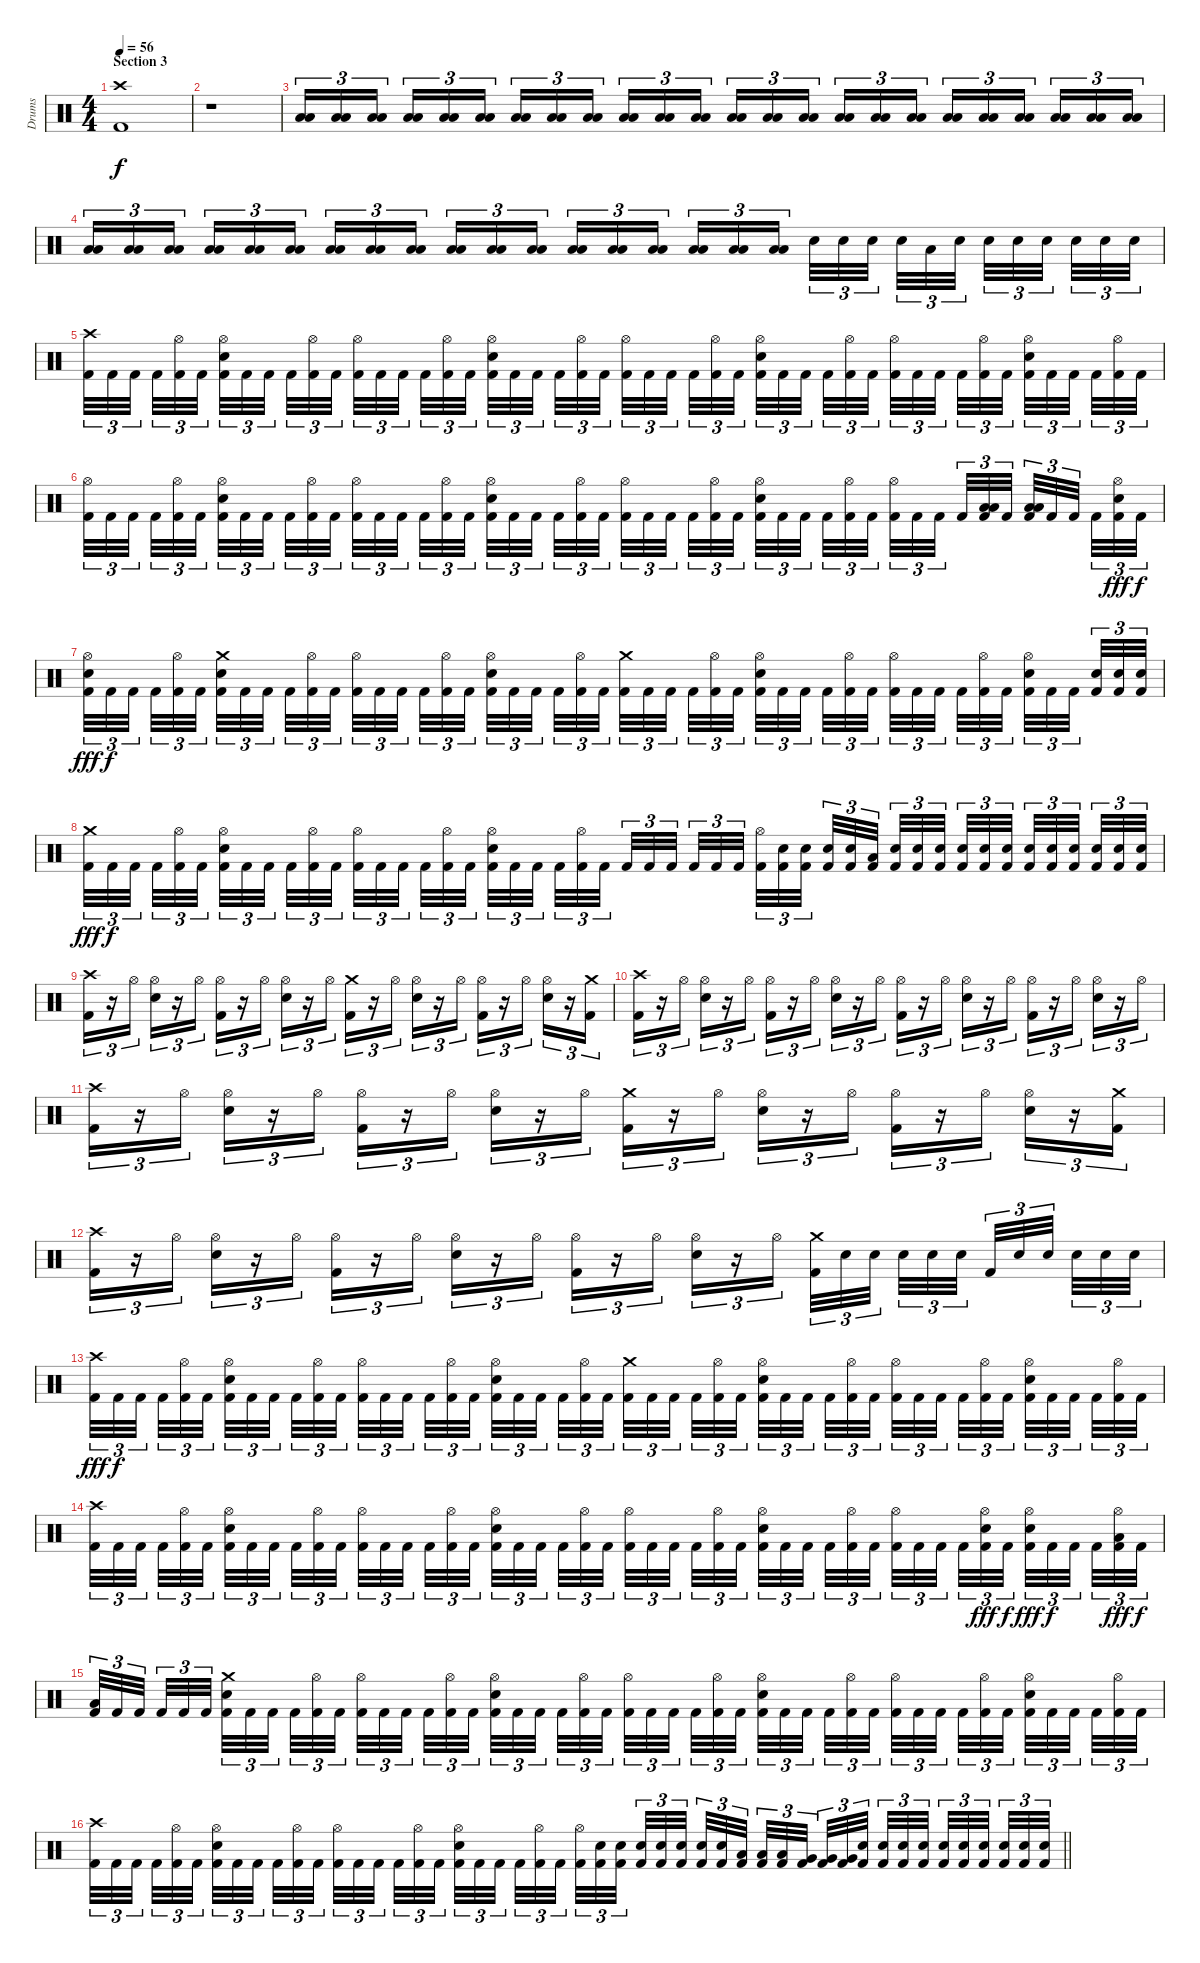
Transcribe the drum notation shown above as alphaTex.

\track ("Drums" "Drums") {instrument percussion}
\staff {score}
\articulation defaults
\ts (4 4)
\section ("" "Section 3")
\tempo 56
\clef neutral
\ks c
("Crash high (hit)" "Kick (hit) 2").1{dy f} |
r.1{volume 4} |
("Low Tom (hit)" "Low Floor Tom (hit)").16{tu (3 2) volume 12} ("Low Tom (hit)" "Low Floor Tom (hit)").16{tu (3 2)} ("Low Tom (hit)" "Low Floor Tom (hit)").16{tu (3 2) beam splitsecondary} ("Low Tom (hit)" "Low Floor Tom (hit)").16{tu (3 2)} ("Low Tom (hit)" "Low Floor Tom (hit)").16{tu (3 2)} ("Low Tom (hit)" "Low Floor Tom (hit)").16{tu (3 2)} ("Low Tom (hit)" "Low Floor Tom (hit)").16{tu (3 2)} ("Low Tom (hit)" "Low Floor Tom (hit)").16{tu (3 2)} ("Low Tom (hit)" "Low Floor Tom (hit)").16{tu (3 2) beam splitsecondary} ("Low Tom (hit)" "Low Floor Tom (hit)").16{tu (3 2)} ("Low Tom (hit)" "Low Floor Tom (hit)").16{tu (3 2)} ("Low Tom (hit)" "Low Floor Tom (hit)").16{tu (3 2)} ("Low Tom (hit)" "Low Floor Tom (hit)").16{tu (3 2)} ("Low Tom (hit)" "Low Floor Tom (hit)").16{tu (3 2)} ("Low Tom (hit)" "Low Floor Tom (hit)").16{tu (3 2) beam splitsecondary} ("Low Tom (hit)" "Low Floor Tom (hit)").16{tu (3 2)} ("Low Tom (hit)" "Low Floor Tom (hit)").16{tu (3 2)} ("Low Tom (hit)" "Low Floor Tom (hit)").16{tu (3 2)} ("Low Tom (hit)" "Low Floor Tom (hit)").16{tu (3 2)} ("Low Tom (hit)" "Low Floor Tom (hit)").16{tu (3 2)} ("Low Tom (hit)" "Low Floor Tom (hit)").16{tu (3 2) beam splitsecondary} ("Low Tom (hit)" "Low Floor Tom (hit)").16{tu (3 2)} ("Low Tom (hit)" "Low Floor Tom (hit)").16{tu (3 2)} ("Low Tom (hit)" "Low Floor Tom (hit)").16{tu (3 2)} |
("Low Tom (hit)" "Low Floor Tom (hit)").16{tu (3 2)} ("Low Tom (hit)" "Low Floor Tom (hit)").16{tu (3 2)} ("Low Tom (hit)" "Low Floor Tom (hit)").16{tu (3 2) beam splitsecondary} ("Low Tom (hit)" "Low Floor Tom (hit)").16{tu (3 2)} ("Low Tom (hit)" "Low Floor Tom (hit)").16{tu (3 2)} ("Low Tom (hit)" "Low Floor Tom (hit)").16{tu (3 2)} ("Low Tom (hit)" "Low Floor Tom (hit)").16{tu (3 2)} ("Low Tom (hit)" "Low Floor Tom (hit)").16{tu (3 2)} ("Low Tom (hit)" "Low Floor Tom (hit)").16{tu (3 2) beam splitsecondary} ("Low Tom (hit)" "Low Floor Tom (hit)").16{tu (3 2)} ("Low Tom (hit)" "Low Floor Tom (hit)").16{tu (3 2)} ("Low Tom (hit)" "Low Floor Tom (hit)").16{tu (3 2)} ("Low Tom (hit)" "Low Floor Tom (hit)").16{tu (3 2)} ("Low Tom (hit)" "Low Floor Tom (hit)").16{tu (3 2)} ("Low Tom (hit)" "Low Floor Tom (hit)").16{tu (3 2) beam splitsecondary} ("Low Tom (hit)" "Low Floor Tom (hit)").16{tu (3 2)} ("Low Tom (hit)" "Low Floor Tom (hit)").16{tu (3 2)} ("Low Tom (hit)" "Low Floor Tom (hit)").16{tu (3 2)} "Electric Snare (hit)".32{tu (3 2)} "Electric Snare (hit)".32{tu (3 2)} "Electric Snare (hit)".32{tu (3 2) beam splitsecondary} "Electric Snare (hit)".32{tu (3 2)} "Low Floor Tom (hit)".32{tu (3 2)} "Electric Snare (hit)".32{tu (3 2) beam splitsecondary} "Electric Snare (hit)".32{tu (3 2)} "Electric Snare (hit)".32{tu (3 2)} "Electric Snare (hit)".32{tu (3 2) beam splitsecondary} "Electric Snare (hit)".32{tu (3 2)} "Electric Snare (hit)".32{tu (3 2)} "Electric Snare (hit)".32{tu (3 2)} |
("Crash high (hit)" "Kick (hit) 2").32{tu (3 2)} "Kick (hit) 2".32{tu (3 2)} "Kick (hit) 2".32{tu (3 2) beam splitsecondary} "Kick (hit) 2".32{tu (3 2)} ("Hi-Hat (open)" "Kick (hit) 2").32{tu (3 2)} "Kick (hit) 2".32{tu (3 2) beam splitsecondary} ("Hi-Hat (open)" "Electric Snare (hit)" "Kick (hit) 2").32{tu (3 2)} "Kick (hit) 2".32{tu (3 2)} "Kick (hit) 2".32{tu (3 2) beam splitsecondary} "Kick (hit) 2".32{tu (3 2)} ("Hi-Hat (open)" "Kick (hit) 2").32{tu (3 2)} "Kick (hit) 2".32{tu (3 2)} ("Hi-Hat (open)" "Kick (hit) 2").32{tu (3 2)} "Kick (hit) 2".32{tu (3 2)} "Kick (hit) 2".32{tu (3 2) beam splitsecondary} "Kick (hit) 2".32{tu (3 2)} ("Hi-Hat (open)" "Kick (hit) 2").32{tu (3 2)} "Kick (hit) 2".32{tu (3 2) beam splitsecondary} ("Hi-Hat (open)" "Electric Snare (hit)" "Kick (hit) 2").32{tu (3 2)} "Kick (hit) 2".32{tu (3 2)} "Kick (hit) 2".32{tu (3 2) beam splitsecondary} "Kick (hit) 2".32{tu (3 2)} ("Hi-Hat (open)" "Kick (hit) 2").32{tu (3 2)} "Kick (hit) 2".32{tu (3 2)} ("Hi-Hat (open)" "Kick (hit) 2").32{tu (3 2)} "Kick (hit) 2".32{tu (3 2)} "Kick (hit) 2".32{tu (3 2) beam splitsecondary} "Kick (hit) 2".32{tu (3 2)} ("Hi-Hat (open)" "Kick (hit) 2").32{tu (3 2)} "Kick (hit) 2".32{tu (3 2) beam splitsecondary} ("Hi-Hat (open)" "Electric Snare (hit)" "Kick (hit) 2").32{tu (3 2)} "Kick (hit) 2".32{tu (3 2)} "Kick (hit) 2".32{tu (3 2) beam splitsecondary} "Kick (hit) 2".32{tu (3 2)} ("Hi-Hat (open)" "Kick (hit) 2").32{tu (3 2)} "Kick (hit) 2".32{tu (3 2)} ("Hi-Hat (open)" "Kick (hit) 2").32{tu (3 2)} "Kick (hit) 2".32{tu (3 2)} "Kick (hit) 2".32{tu (3 2) beam splitsecondary} "Kick (hit) 2".32{tu (3 2)} ("Hi-Hat (open)" "Kick (hit) 2").32{tu (3 2)} "Kick (hit) 2".32{tu (3 2) beam splitsecondary} ("Hi-Hat (open)" "Electric Snare (hit)" "Kick (hit) 2").32{tu (3 2)} "Kick (hit) 2".32{tu (3 2)} "Kick (hit) 2".32{tu (3 2) beam splitsecondary} "Kick (hit) 2".32{tu (3 2)} ("Hi-Hat (open)" "Kick (hit) 2").32{tu (3 2)} "Kick (hit) 2".32{tu (3 2)} |
("Hi-Hat (open)" "Kick (hit) 2").32{tu (3 2)} "Kick (hit) 2".32{tu (3 2)} "Kick (hit) 2".32{tu (3 2) beam splitsecondary} "Kick (hit) 2".32{tu (3 2)} ("Hi-Hat (open)" "Kick (hit) 2").32{tu (3 2)} "Kick (hit) 2".32{tu (3 2) beam splitsecondary} ("Hi-Hat (open)" "Electric Snare (hit)" "Kick (hit) 2").32{tu (3 2)} "Kick (hit) 2".32{tu (3 2)} "Kick (hit) 2".32{tu (3 2) beam splitsecondary} "Kick (hit) 2".32{tu (3 2)} ("Hi-Hat (open)" "Kick (hit) 2").32{tu (3 2)} "Kick (hit) 2".32{tu (3 2)} ("Hi-Hat (open)" "Kick (hit) 2").32{tu (3 2)} "Kick (hit) 2".32{tu (3 2)} "Kick (hit) 2".32{tu (3 2) beam splitsecondary} "Kick (hit) 2".32{tu (3 2)} ("Hi-Hat (open)" "Kick (hit) 2").32{tu (3 2)} "Kick (hit) 2".32{tu (3 2) beam splitsecondary} ("Hi-Hat (open)" "Electric Snare (hit)" "Kick (hit) 2").32{tu (3 2)} "Kick (hit) 2".32{tu (3 2)} "Kick (hit) 2".32{tu (3 2) beam splitsecondary} "Kick (hit) 2".32{tu (3 2)} ("Hi-Hat (open)" "Kick (hit) 2").32{tu (3 2)} "Kick (hit) 2".32{tu (3 2)} ("Hi-Hat (open)" "Kick (hit) 2").32{tu (3 2)} "Kick (hit) 2".32{tu (3 2)} "Kick (hit) 2".32{tu (3 2) beam splitsecondary} "Kick (hit) 2".32{tu (3 2)} ("Hi-Hat (open)" "Kick (hit) 2").32{tu (3 2)} "Kick (hit) 2".32{tu (3 2) beam splitsecondary} ("Hi-Hat (open)" "Electric Snare (hit)" "Kick (hit) 2").32{tu (3 2)} "Kick (hit) 2".32{tu (3 2)} "Kick (hit) 2".32{tu (3 2) beam splitsecondary} "Kick (hit) 2".32{tu (3 2)} ("Hi-Hat (open)" "Kick (hit) 2").32{tu (3 2)} "Kick (hit) 2".32{tu (3 2)} ("Hi-Hat (open)" "Kick (hit) 2").32{tu (3 2)} "Kick (hit) 2".32{tu (3 2)} "Kick (hit) 2".32{tu (3 2) beam splitsecondary} "Kick (hit) 2".32{tu (3 2)} ("Low Tom (hit)" "Low Floor Tom (hit)" "Kick (hit) 2").32{tu (3 2)} "Kick (hit) 2".32{tu (3 2) beam splitsecondary} ("Low Tom (hit)" "Low Floor Tom (hit)" "Kick (hit) 2").32{tu (3 2)} "Kick (hit) 2".32{tu (3 2)} "Kick (hit) 2".32{tu (3 2) beam splitsecondary} "Kick (hit) 2".32{tu (3 2)} ("Hi-Hat (open)" "Electric Snare (hit)" "Kick (hit) 2").32{tu (3 2) dy fff} "Kick (hit) 2".32{tu (3 2) dy f} |
("Hi-Hat (open)" "Electric Snare (hit)" "Kick (hit) 2").32{tu (3 2) dy fff} "Kick (hit) 2".32{tu (3 2) dy f} "Kick (hit) 2".32{tu (3 2) beam splitsecondary} "Kick (hit) 2".32{tu (3 2)} ("Hi-Hat (open)" "Kick (hit) 2").32{tu (3 2)} "Kick (hit) 2".32{tu (3 2) beam splitsecondary} ("Crash medium (hit)" "Electric Snare (hit)" "Kick (hit) 2").32{tu (3 2)} "Kick (hit) 2".32{tu (3 2)} "Kick (hit) 2".32{tu (3 2) beam splitsecondary} "Kick (hit) 2".32{tu (3 2)} ("Hi-Hat (open)" "Kick (hit) 2").32{tu (3 2)} "Kick (hit) 2".32{tu (3 2)} ("Hi-Hat (open)" "Kick (hit) 2").32{tu (3 2)} "Kick (hit) 2".32{tu (3 2)} "Kick (hit) 2".32{tu (3 2) beam splitsecondary} "Kick (hit) 2".32{tu (3 2)} ("Hi-Hat (open)" "Kick (hit) 2").32{tu (3 2)} "Kick (hit) 2".32{tu (3 2) beam splitsecondary} ("Hi-Hat (open)" "Electric Snare (hit)" "Kick (hit) 2").32{tu (3 2)} "Kick (hit) 2".32{tu (3 2)} "Kick (hit) 2".32{tu (3 2) beam splitsecondary} "Kick (hit) 2".32{tu (3 2)} ("Hi-Hat (open)" "Kick (hit) 2").32{tu (3 2)} "Kick (hit) 2".32{tu (3 2)} ("Crash medium (hit)" "Kick (hit) 2").32{tu (3 2)} "Kick (hit) 2".32{tu (3 2)} "Kick (hit) 2".32{tu (3 2) beam splitsecondary} "Kick (hit) 2".32{tu (3 2)} ("Hi-Hat (open)" "Kick (hit) 2").32{tu (3 2)} "Kick (hit) 2".32{tu (3 2) beam splitsecondary} ("Hi-Hat (open)" "Electric Snare (hit)" "Kick (hit) 2").32{tu (3 2)} "Kick (hit) 2".32{tu (3 2)} "Kick (hit) 2".32{tu (3 2) beam splitsecondary} "Kick (hit) 2".32{tu (3 2)} ("Hi-Hat (open)" "Kick (hit) 2").32{tu (3 2)} "Kick (hit) 2".32{tu (3 2)} ("Hi-Hat (open)" "Kick (hit) 2").32{tu (3 2)} "Kick (hit) 2".32{tu (3 2)} "Kick (hit) 2".32{tu (3 2) beam splitsecondary} "Kick (hit) 2".32{tu (3 2)} ("Hi-Hat (open)" "Kick (hit) 2").32{tu (3 2)} "Kick (hit) 2".32{tu (3 2) beam splitsecondary} ("Hi-Hat (open)" "Electric Snare (hit)" "Kick (hit) 2").32{tu (3 2)} "Kick (hit) 2".32{tu (3 2)} "Kick (hit) 2".32{tu (3 2) beam splitsecondary} ("Electric Snare (hit)" "Kick (hit) 2").32{tu (3 2)} ("Electric Snare (hit)" "Kick (hit) 2").32{tu (3 2)} ("Electric Snare (hit)" "Kick (hit) 2").32{tu (3 2)} |
("Crash medium (hit)" "Kick (hit) 2").32{tu (3 2) dy fff} "Kick (hit) 2".32{tu (3 2) dy f} "Kick (hit) 2".32{tu (3 2) beam splitsecondary} "Kick (hit) 2".32{tu (3 2)} ("Hi-Hat (open)" "Kick (hit) 2").32{tu (3 2)} "Kick (hit) 2".32{tu (3 2) beam splitsecondary} ("Hi-Hat (open)" "Electric Snare (hit)" "Kick (hit) 2").32{tu (3 2)} "Kick (hit) 2".32{tu (3 2)} "Kick (hit) 2".32{tu (3 2) beam splitsecondary} "Kick (hit) 2".32{tu (3 2)} ("Hi-Hat (open)" "Kick (hit) 2").32{tu (3 2)} "Kick (hit) 2".32{tu (3 2)} ("Hi-Hat (open)" "Kick (hit) 2").32{tu (3 2)} "Kick (hit) 2".32{tu (3 2)} "Kick (hit) 2".32{tu (3 2) beam splitsecondary} "Kick (hit) 2".32{tu (3 2)} ("Hi-Hat (open)" "Kick (hit) 2").32{tu (3 2)} "Kick (hit) 2".32{tu (3 2) beam splitsecondary} ("Hi-Hat (open)" "Electric Snare (hit)" "Kick (hit) 2").32{tu (3 2)} "Kick (hit) 2".32{tu (3 2)} "Kick (hit) 2".32{tu (3 2) beam splitsecondary} "Kick (hit) 2".32{tu (3 2)} ("Hi-Hat (open)" "Kick (hit) 2").32{tu (3 2)} "Kick (hit) 2".32{tu (3 2)} "Kick (hit) 2".32{tu (3 2)} "Kick (hit) 2".32{tu (3 2)} "Kick (hit) 2".32{tu (3 2) beam splitsecondary} "Kick (hit) 2".32{tu (3 2)} "Kick (hit) 2".32{tu (3 2)} "Kick (hit) 2".32{tu (3 2) beam splitsecondary} ("Hi-Hat (open)" "Kick (hit) 2").32{tu (3 2)} ("Electric Snare (hit)" "Kick (hit) 2").32{tu (3 2)} ("Electric Snare (hit)" "Kick (hit) 2").32{tu (3 2) beam splitsecondary} ("Electric Snare (hit)" "Kick (hit) 2").32{tu (3 2)} ("Electric Snare (hit)" "Kick (hit) 2").32{tu (3 2)} ("Low Floor Tom (hit)" "Kick (hit) 2").32{tu (3 2)} ("Electric Snare (hit)" "Kick (hit) 2").32{tu (3 2)} ("Electric Snare (hit)" "Kick (hit) 2").32{tu (3 2)} ("Electric Snare (hit)" "Kick (hit) 2").32{tu (3 2) beam splitsecondary} ("Electric Snare (hit)" "Kick (hit) 2").32{tu (3 2)} ("Electric Snare (hit)" "Kick (hit) 2").32{tu (3 2)} ("Electric Snare (hit)" "Kick (hit) 2").32{tu (3 2) beam splitsecondary} ("Electric Snare (hit)" "Kick (hit) 2").32{tu (3 2)} ("Electric Snare (hit)" "Kick (hit) 2").32{tu (3 2)} ("Electric Snare (hit)" "Kick (hit) 2").32{tu (3 2) beam splitsecondary} ("Electric Snare (hit)" "Kick (hit) 2").32{tu (3 2)} ("Electric Snare (hit)" "Kick (hit) 2").32{tu (3 2)} ("Electric Snare (hit)" "Kick (hit) 2").32{tu (3 2)} |
("Crash high (hit)" "Kick (hit) 2").16{tu (3 2)} r.16{tu (3 2)} "Hi-Hat (open)".16{tu (3 2)} ("Hi-Hat (open)" "Electric Snare (hit)").16{tu (3 2)} r.16{tu (3 2)} "Hi-Hat (open)".16{tu (3 2)} ("Hi-Hat (open)" "Kick (hit) 2").16{tu (3 2)} r.16{tu (3 2)} "Hi-Hat (open)".16{tu (3 2)} ("Hi-Hat (open)" "Electric Snare (hit)").16{tu (3 2)} r.16{tu (3 2)} "Hi-Hat (open)".16{tu (3 2)} ("Crash medium (hit)" "Kick (hit) 2").16{tu (3 2)} r.16{tu (3 2)} "Hi-Hat (open)".16{tu (3 2)} ("Hi-Hat (open)" "Electric Snare (hit)").16{tu (3 2)} r.16{tu (3 2)} "Hi-Hat (open)".16{tu (3 2)} ("Hi-Hat (open)" "Kick (hit) 2").16{tu (3 2)} r.16{tu (3 2)} "Hi-Hat (open)".16{tu (3 2)} ("Hi-Hat (open)" "Electric Snare (hit)").16{tu (3 2)} r.16{tu (3 2)} ("Crash medium (hit)" "Kick (hit) 2").16{tu (3 2)} |
("Crash high (hit)" "Kick (hit) 2").16{tu (3 2)} r.16{tu (3 2)} "Hi-Hat (open)".16{tu (3 2)} ("Hi-Hat (open)" "Electric Snare (hit)").16{tu (3 2)} r.16{tu (3 2)} "Hi-Hat (open)".16{tu (3 2)} ("Hi-Hat (open)" "Kick (hit) 2").16{tu (3 2)} r.16{tu (3 2)} "Hi-Hat (open)".16{tu (3 2)} ("Hi-Hat (open)" "Electric Snare (hit)").16{tu (3 2)} r.16{tu (3 2)} "Hi-Hat (open)".16{tu (3 2)} ("Hi-Hat (open)" "Kick (hit) 2").16{tu (3 2)} r.16{tu (3 2)} "Hi-Hat (open)".16{tu (3 2)} ("Hi-Hat (open)" "Electric Snare (hit)").16{tu (3 2)} r.16{tu (3 2)} "Hi-Hat (open)".16{tu (3 2)} ("Hi-Hat (open)" "Kick (hit) 2").16{tu (3 2)} r.16{tu (3 2)} "Hi-Hat (open)".16{tu (3 2)} ("Hi-Hat (open)" "Electric Snare (hit)").16{tu (3 2)} r.16{tu (3 2)} "Hi-Hat (open)".16{tu (3 2)} |
("Crash high (hit)" "Kick (hit) 2").16{tu (3 2)} r.16{tu (3 2)} "Hi-Hat (open)".16{tu (3 2)} ("Hi-Hat (open)" "Electric Snare (hit)").16{tu (3 2)} r.16{tu (3 2)} "Hi-Hat (open)".16{tu (3 2)} ("Hi-Hat (open)" "Kick (hit) 2").16{tu (3 2)} r.16{tu (3 2)} "Hi-Hat (open)".16{tu (3 2)} ("Hi-Hat (open)" "Electric Snare (hit)").16{tu (3 2)} r.16{tu (3 2)} "Hi-Hat (open)".16{tu (3 2)} ("Crash medium (hit)" "Kick (hit) 2").16{tu (3 2)} r.16{tu (3 2)} "Hi-Hat (open)".16{tu (3 2)} ("Hi-Hat (open)" "Electric Snare (hit)").16{tu (3 2)} r.16{tu (3 2)} "Hi-Hat (open)".16{tu (3 2)} ("Hi-Hat (open)" "Kick (hit) 2").16{tu (3 2)} r.16{tu (3 2)} "Hi-Hat (open)".16{tu (3 2)} ("Hi-Hat (open)" "Electric Snare (hit)").16{tu (3 2)} r.16{tu (3 2)} ("Crash medium (hit)" "Kick (hit) 2").16{tu (3 2)} |
("Crash high (hit)" "Kick (hit) 2").16{tu (3 2)} r.16{tu (3 2)} "Hi-Hat (open)".16{tu (3 2)} ("Hi-Hat (open)" "Electric Snare (hit)").16{tu (3 2)} r.16{tu (3 2)} "Hi-Hat (open)".16{tu (3 2)} ("Hi-Hat (open)" "Kick (hit) 2").16{tu (3 2)} r.16{tu (3 2)} "Hi-Hat (open)".16{tu (3 2)} ("Hi-Hat (open)" "Electric Snare (hit)").16{tu (3 2)} r.16{tu (3 2)} "Hi-Hat (open)".16{tu (3 2)} ("Hi-Hat (open)" "Kick (hit) 2").16{tu (3 2)} r.16{tu (3 2)} "Hi-Hat (open)".16{tu (3 2)} ("Hi-Hat (open)" "Electric Snare (hit)").16{tu (3 2)} r.16{tu (3 2)} "Hi-Hat (open)".16{tu (3 2)} ("Crash medium (hit)" "Kick (hit) 2").32{tu (3 2)} "Electric Snare (hit)".32{tu (3 2)} "Electric Snare (hit)".32{tu (3 2) beam splitsecondary} "Electric Snare (hit)".32{tu (3 2)} "Electric Snare (hit)".32{tu (3 2)} "Electric Snare (hit)".32{tu (3 2) beam splitsecondary} "Kick (hit) 2".32{tu (3 2)} "Electric Snare (hit)".32{tu (3 2)} "Electric Snare (hit)".32{tu (3 2) beam splitsecondary} "Electric Snare (hit)".32{tu (3 2)} "Electric Snare (hit)".32{tu (3 2)} "Electric Snare (hit)".32{tu (3 2)} |
("Crash high (hit)" "Kick (hit) 2").32{tu (3 2) dy fff} "Kick (hit) 2".32{tu (3 2) dy f} "Kick (hit) 2".32{tu (3 2) beam splitsecondary} "Kick (hit) 2".32{tu (3 2)} ("Hi-Hat (open)" "Kick (hit) 2").32{tu (3 2)} "Kick (hit) 2".32{tu (3 2) beam splitsecondary} ("Hi-Hat (open)" "Electric Snare (hit)" "Kick (hit) 2").32{tu (3 2)} "Kick (hit) 2".32{tu (3 2)} "Kick (hit) 2".32{tu (3 2) beam splitsecondary} "Kick (hit) 2".32{tu (3 2)} ("Hi-Hat (open)" "Kick (hit) 2").32{tu (3 2)} "Kick (hit) 2".32{tu (3 2)} ("Hi-Hat (open)" "Kick (hit) 2").32{tu (3 2)} "Kick (hit) 2".32{tu (3 2)} "Kick (hit) 2".32{tu (3 2) beam splitsecondary} "Kick (hit) 2".32{tu (3 2)} ("Hi-Hat (open)" "Kick (hit) 2").32{tu (3 2)} "Kick (hit) 2".32{tu (3 2) beam splitsecondary} ("Hi-Hat (open)" "Electric Snare (hit)" "Kick (hit) 2").32{tu (3 2)} "Kick (hit) 2".32{tu (3 2)} "Kick (hit) 2".32{tu (3 2) beam splitsecondary} "Kick (hit) 2".32{tu (3 2)} ("Hi-Hat (open)" "Kick (hit) 2").32{tu (3 2)} "Kick (hit) 2".32{tu (3 2)} ("Crash medium (hit)" "Kick (hit) 2").32{tu (3 2)} "Kick (hit) 2".32{tu (3 2)} "Kick (hit) 2".32{tu (3 2) beam splitsecondary} "Kick (hit) 2".32{tu (3 2)} ("Hi-Hat (open)" "Kick (hit) 2").32{tu (3 2)} "Kick (hit) 2".32{tu (3 2) beam splitsecondary} ("Hi-Hat (open)" "Electric Snare (hit)" "Kick (hit) 2").32{tu (3 2)} "Kick (hit) 2".32{tu (3 2)} "Kick (hit) 2".32{tu (3 2) beam splitsecondary} "Kick (hit) 2".32{tu (3 2)} ("Hi-Hat (open)" "Kick (hit) 2").32{tu (3 2)} "Kick (hit) 2".32{tu (3 2)} ("Hi-Hat (open)" "Kick (hit) 2").32{tu (3 2)} "Kick (hit) 2".32{tu (3 2)} "Kick (hit) 2".32{tu (3 2) beam splitsecondary} "Kick (hit) 2".32{tu (3 2)} ("Hi-Hat (open)" "Kick (hit) 2").32{tu (3 2)} "Kick (hit) 2".32{tu (3 2) beam splitsecondary} ("Hi-Hat (open)" "Electric Snare (hit)" "Kick (hit) 2").32{tu (3 2)} "Kick (hit) 2".32{tu (3 2)} "Kick (hit) 2".32{tu (3 2) beam splitsecondary} "Kick (hit) 2".32{tu (3 2)} ("Hi-Hat (open)" "Kick (hit) 2").32{tu (3 2)} "Kick (hit) 2".32{tu (3 2)} |
("Crash high (hit)" "Kick (hit) 2").32{tu (3 2)} "Kick (hit) 2".32{tu (3 2)} "Kick (hit) 2".32{tu (3 2) beam splitsecondary} "Kick (hit) 2".32{tu (3 2)} ("Hi-Hat (open)" "Kick (hit) 2").32{tu (3 2)} "Kick (hit) 2".32{tu (3 2) beam splitsecondary} ("Hi-Hat (open)" "Electric Snare (hit)" "Kick (hit) 2").32{tu (3 2)} "Kick (hit) 2".32{tu (3 2)} "Kick (hit) 2".32{tu (3 2) beam splitsecondary} "Kick (hit) 2".32{tu (3 2)} ("Hi-Hat (open)" "Kick (hit) 2").32{tu (3 2)} "Kick (hit) 2".32{tu (3 2)} ("Hi-Hat (open)" "Kick (hit) 2").32{tu (3 2)} "Kick (hit) 2".32{tu (3 2)} "Kick (hit) 2".32{tu (3 2) beam splitsecondary} "Kick (hit) 2".32{tu (3 2)} ("Hi-Hat (open)" "Kick (hit) 2").32{tu (3 2)} "Kick (hit) 2".32{tu (3 2) beam splitsecondary} ("Hi-Hat (open)" "Electric Snare (hit)" "Kick (hit) 2").32{tu (3 2)} "Kick (hit) 2".32{tu (3 2)} "Kick (hit) 2".32{tu (3 2) beam splitsecondary} "Kick (hit) 2".32{tu (3 2)} ("Hi-Hat (open)" "Kick (hit) 2").32{tu (3 2)} "Kick (hit) 2".32{tu (3 2)} ("Hi-Hat (open)" "Kick (hit) 2").32{tu (3 2)} "Kick (hit) 2".32{tu (3 2)} "Kick (hit) 2".32{tu (3 2) beam splitsecondary} "Kick (hit) 2".32{tu (3 2)} ("Hi-Hat (open)" "Kick (hit) 2").32{tu (3 2)} "Kick (hit) 2".32{tu (3 2) beam splitsecondary} ("Hi-Hat (open)" "Electric Snare (hit)" "Kick (hit) 2").32{tu (3 2)} "Kick (hit) 2".32{tu (3 2)} "Kick (hit) 2".32{tu (3 2) beam splitsecondary} "Kick (hit) 2".32{tu (3 2)} ("Hi-Hat (open)" "Kick (hit) 2").32{tu (3 2)} "Kick (hit) 2".32{tu (3 2)} ("Hi-Hat (open)" "Kick (hit) 2").32{tu (3 2)} "Kick (hit) 2".32{tu (3 2)} "Kick (hit) 2".32{tu (3 2) beam splitsecondary} "Kick (hit) 2".32{tu (3 2)} ("Hi-Hat (open)" "Electric Snare (hit)" "Kick (hit) 2").32{tu (3 2) dy fff} "Kick (hit) 2".32{tu (3 2) dy f beam splitsecondary} ("Hi-Hat (open)" "Electric Snare (hit)" "Kick (hit) 2").32{tu (3 2) dy fff} "Kick (hit) 2".32{tu (3 2) dy f} "Kick (hit) 2".32{tu (3 2) beam splitsecondary} "Kick (hit) 2".32{tu (3 2)} ("Hi-Hat (open)" "Low Tom (hit)" "Kick (hit) 2").32{tu (3 2) dy fff} "Kick (hit) 2".32{tu (3 2) dy f} |
("Low Floor Tom (hit)" "Kick (hit) 2").32{tu (3 2)} "Kick (hit) 2".32{tu (3 2)} "Kick (hit) 2".32{tu (3 2) beam splitsecondary} "Kick (hit) 2".32{tu (3 2)} "Kick (hit) 2".32{tu (3 2)} "Kick (hit) 2".32{tu (3 2) beam splitsecondary} ("Crash medium (hit)" "Electric Snare (hit)" "Kick (hit) 2").32{tu (3 2)} "Kick (hit) 2".32{tu (3 2)} "Kick (hit) 2".32{tu (3 2) beam splitsecondary} "Kick (hit) 2".32{tu (3 2)} ("Hi-Hat (open)" "Kick (hit) 2").32{tu (3 2)} "Kick (hit) 2".32{tu (3 2)} ("Hi-Hat (open)" "Kick (hit) 2").32{tu (3 2)} "Kick (hit) 2".32{tu (3 2)} "Kick (hit) 2".32{tu (3 2) beam splitsecondary} "Kick (hit) 2".32{tu (3 2)} ("Hi-Hat (open)" "Kick (hit) 2").32{tu (3 2)} "Kick (hit) 2".32{tu (3 2) beam splitsecondary} ("Hi-Hat (open)" "Electric Snare (hit)" "Kick (hit) 2").32{tu (3 2)} "Kick (hit) 2".32{tu (3 2)} "Kick (hit) 2".32{tu (3 2) beam splitsecondary} "Kick (hit) 2".32{tu (3 2)} ("Hi-Hat (open)" "Kick (hit) 2").32{tu (3 2)} "Kick (hit) 2".32{tu (3 2)} ("Hi-Hat (open)" "Kick (hit) 2").32{tu (3 2)} "Kick (hit) 2".32{tu (3 2)} "Kick (hit) 2".32{tu (3 2) beam splitsecondary} "Kick (hit) 2".32{tu (3 2)} ("Hi-Hat (open)" "Kick (hit) 2").32{tu (3 2)} "Kick (hit) 2".32{tu (3 2) beam splitsecondary} ("Hi-Hat (open)" "Electric Snare (hit)" "Kick (hit) 2").32{tu (3 2)} "Kick (hit) 2".32{tu (3 2)} "Kick (hit) 2".32{tu (3 2) beam splitsecondary} "Kick (hit) 2".32{tu (3 2)} ("Hi-Hat (open)" "Kick (hit) 2").32{tu (3 2)} "Kick (hit) 2".32{tu (3 2)} ("Hi-Hat (open)" "Kick (hit) 2").32{tu (3 2)} "Kick (hit) 2".32{tu (3 2)} "Kick (hit) 2".32{tu (3 2) beam splitsecondary} "Kick (hit) 2".32{tu (3 2)} ("Hi-Hat (open)" "Kick (hit) 2").32{tu (3 2)} "Kick (hit) 2".32{tu (3 2) beam splitsecondary} ("Hi-Hat (open)" "Electric Snare (hit)" "Kick (hit) 2").32{tu (3 2)} "Kick (hit) 2".32{tu (3 2)} "Kick (hit) 2".32{tu (3 2) beam splitsecondary} "Kick (hit) 2".32{tu (3 2)} ("Hi-Hat (open)" "Kick (hit) 2").32{tu (3 2)} "Kick (hit) 2".32{tu (3 2)} |
\barLineRight lightlight
("Crash high (hit)" "Kick (hit) 2").32{tu (3 2)} "Kick (hit) 2".32{tu (3 2)} "Kick (hit) 2".32{tu (3 2) beam splitsecondary} "Kick (hit) 2".32{tu (3 2)} ("Hi-Hat (open)" "Kick (hit) 2").32{tu (3 2)} "Kick (hit) 2".32{tu (3 2) beam splitsecondary} ("Hi-Hat (open)" "Electric Snare (hit)" "Kick (hit) 2").32{tu (3 2)} "Kick (hit) 2".32{tu (3 2)} "Kick (hit) 2".32{tu (3 2) beam splitsecondary} "Kick (hit) 2".32{tu (3 2)} ("Hi-Hat (open)" "Kick (hit) 2").32{tu (3 2)} "Kick (hit) 2".32{tu (3 2)} ("Hi-Hat (open)" "Kick (hit) 2").32{tu (3 2)} "Kick (hit) 2".32{tu (3 2)} "Kick (hit) 2".32{tu (3 2) beam splitsecondary} "Kick (hit) 2".32{tu (3 2)} ("Hi-Hat (open)" "Kick (hit) 2").32{tu (3 2)} "Kick (hit) 2".32{tu (3 2) beam splitsecondary} ("Hi-Hat (open)" "Electric Snare (hit)" "Kick (hit) 2").32{tu (3 2)} "Kick (hit) 2".32{tu (3 2)} "Kick (hit) 2".32{tu (3 2) beam splitsecondary} "Kick (hit) 2".32{tu (3 2)} ("Hi-Hat (open)" "Kick (hit) 2").32{tu (3 2)} "Kick (hit) 2".32{tu (3 2)} ("Hi-Hat (open)" "Kick (hit) 2").32{tu (3 2)} ("Electric Snare (hit)" "Kick (hit) 2").32{tu (3 2)} ("Electric Snare (hit)" "Kick (hit) 2").32{tu (3 2) beam splitsecondary} ("Electric Snare (hit)" "Kick (hit) 2").32{tu (3 2)} ("Electric Snare (hit)" "Kick (hit) 2").32{tu (3 2)} ("Electric Snare (hit)" "Kick (hit) 2").32{tu (3 2) beam splitsecondary} ("Electric Snare (hit)" "Kick (hit) 2").32{tu (3 2)} ("Electric Snare (hit)" "Kick (hit) 2").32{tu (3 2)} ("Low Tom (hit)" "Kick (hit) 2").32{tu (3 2) beam splitsecondary} ("Low Tom (hit)" "Kick (hit) 2").32{tu (3 2)} ("Low Tom (hit)" "Kick (hit) 2").32{tu (3 2)} ("Very Low Tom (hit)" "Kick (hit) 2").32{tu (3 2)} ("Very Low Tom (hit)" "Kick (hit) 2").32{tu (3 2)} ("Very Low Tom (hit)" "Kick (hit) 2").32{tu (3 2)} ("Electric Snare (hit)" "Kick (hit) 2").32{tu (3 2) beam splitsecondary} ("Electric Snare (hit)" "Kick (hit) 2").32{tu (3 2)} ("Electric Snare (hit)" "Kick (hit) 2").32{tu (3 2)} ("Electric Snare (hit)" "Kick (hit) 2").32{tu (3 2) beam splitsecondary} ("Electric Snare (hit)" "Kick (hit) 2").32{tu (3 2)} ("Electric Snare (hit)" "Kick (hit) 2").32{tu (3 2)} ("Electric Snare (hit)" "Kick (hit) 2").32{tu (3 2) beam splitsecondary} ("Electric Snare (hit)" "Kick (hit) 2").32{tu (3 2)} ("Electric Snare (hit)" "Kick (hit) 2").32{tu (3 2)} ("Electric Snare (hit)" "Kick (hit) 2").32{tu (3 2)}
